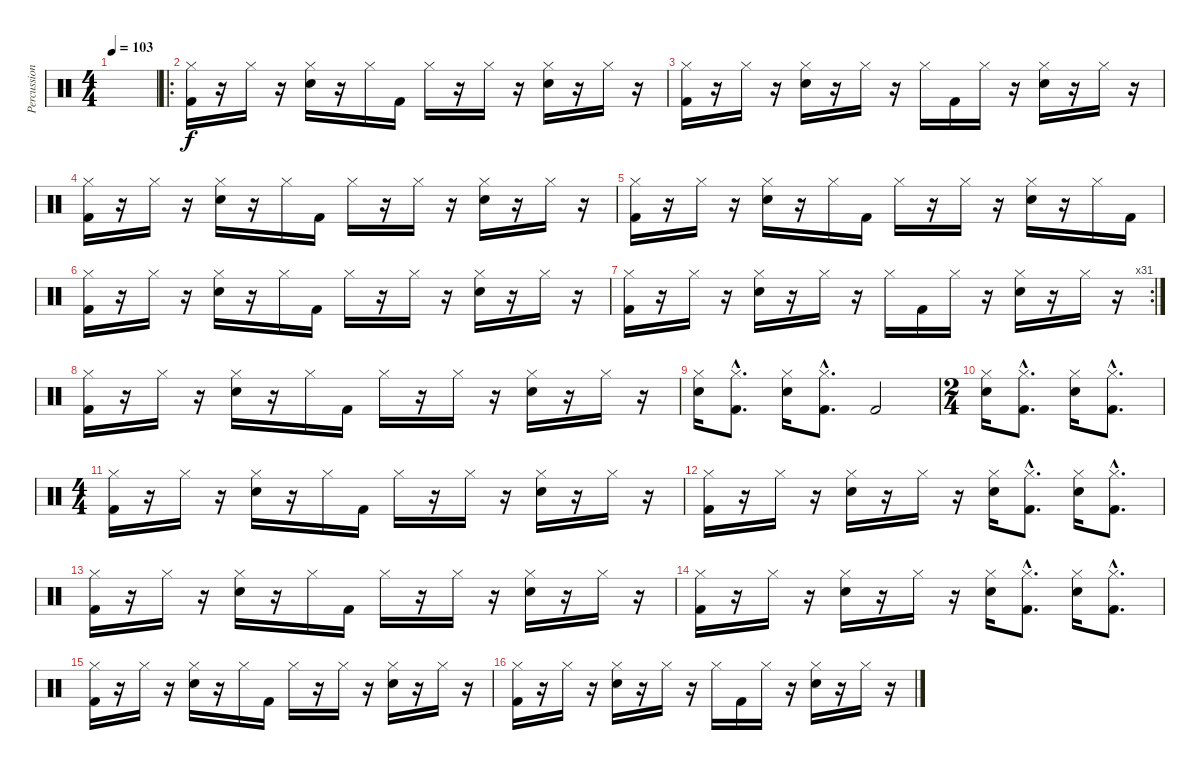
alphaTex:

\track ("Percussions" "Percussion") {instrument percussion}
\staff {score}
\articulation defaults
\ts (4 4)
\tempo 103
\clef neutral
\ks c
|
\ro
("Hi-Hat (closed)" "Kick (hit) 2").16 r.16 "Hi-Hat (closed)".16 r.16 ("Hi-Hat (closed)" "Snare (hit) 2").16 r.16 "Hi-Hat (closed)".16 "Kick (hit) 2".16 "Hi-Hat (closed)".16 r.16 "Hi-Hat (closed)".16 r.16 ("Hi-Hat (closed)" "Snare (hit) 2").16 r.16 "Hi-Hat (closed)".16 r.16 |
("Hi-Hat (closed)" "Kick (hit) 2").16 r.16 "Hi-Hat (closed)".16 r.16 ("Hi-Hat (closed)" "Snare (hit) 2").16 r.16 "Hi-Hat (closed)".16 r.16 "Hi-Hat (closed)".16 "Kick (hit) 2".16 "Hi-Hat (closed)".16 r.16 ("Hi-Hat (closed)" "Snare (hit) 2").16 r.16 "Hi-Hat (closed)".16 r.16 |
("Hi-Hat (closed)" "Kick (hit) 2").16 r.16 "Hi-Hat (closed)".16 r.16 ("Hi-Hat (closed)" "Snare (hit) 2").16 r.16 "Hi-Hat (closed)".16 "Kick (hit) 2".16 "Hi-Hat (closed)".16 r.16 "Hi-Hat (closed)".16 r.16 ("Hi-Hat (closed)" "Snare (hit) 2").16 r.16 "Hi-Hat (closed)".16 r.16 |
("Hi-Hat (closed)" "Kick (hit) 2").16 r.16 "Hi-Hat (closed)".16 r.16 ("Hi-Hat (closed)" "Snare (hit) 2").16 r.16 "Hi-Hat (closed)".16 "Kick (hit) 2".16 "Hi-Hat (closed)".16 r.16 "Hi-Hat (closed)".16 r.16 ("Hi-Hat (closed)" "Snare (hit) 2").16 r.16 "Hi-Hat (closed)".16 "Kick (hit) 2".16 |
("Hi-Hat (closed)" "Kick (hit) 2").16 r.16 "Hi-Hat (closed)".16 r.16 ("Hi-Hat (closed)" "Snare (hit) 2").16 r.16 "Hi-Hat (closed)".16 "Kick (hit) 2".16 "Hi-Hat (closed)".16 r.16 "Hi-Hat (closed)".16 r.16 ("Hi-Hat (closed)" "Snare (hit) 2").16 r.16 "Hi-Hat (closed)".16 r.16 |
\rc 31
("Hi-Hat (closed)" "Kick (hit) 2").16 r.16 "Hi-Hat (closed)".16 r.16 ("Hi-Hat (closed)" "Snare (hit) 2").16 r.16 "Hi-Hat (closed)".16 r.16 "Hi-Hat (closed)".16 "Kick (hit) 2".16 "Hi-Hat (closed)".16 r.16 ("Hi-Hat (closed)" "Snare (hit) 2").16 r.16 "Hi-Hat (closed)".16 r.16 |
("Hi-Hat (closed)" "Kick (hit) 2").16 r.16 "Hi-Hat (closed)".16 r.16 ("Hi-Hat (closed)" "Snare (hit) 2").16 r.16 "Hi-Hat (closed)".16 "Kick (hit) 2".16 "Hi-Hat (closed)".16 r.16 "Hi-Hat (closed)".16 r.16 ("Hi-Hat (closed)" "Snare (hit) 2").16 r.16 "Hi-Hat (closed)".16 r.16 |
("Hi-Hat (closed)" "Snare (hit) 2").16 ("Hi-Hat (closed)"{hac} "Kick (hit) 2"{hac}).8{d} ("Hi-Hat (closed)" "Snare (hit) 2").16 ("Hi-Hat (closed)"{hac} "Kick (hit) 2"{hac}).8{d} "Kick (hit) 2".2 |
\ts (2 4)
("Hi-Hat (closed)" "Snare (hit) 2").16 ("Hi-Hat (closed)"{hac} "Kick (hit) 2"{hac}).8{d} ("Hi-Hat (closed)" "Snare (hit) 2").16 ("Hi-Hat (closed)"{hac} "Kick (hit) 2"{hac}).8{d} |
\ts (4 4)
("Hi-Hat (closed)" "Kick (hit) 2").16 r.16 "Hi-Hat (closed)".16 r.16 ("Hi-Hat (closed)" "Snare (hit) 2").16 r.16 "Hi-Hat (closed)".16 "Kick (hit) 2".16 "Hi-Hat (closed)".16 r.16 "Hi-Hat (closed)".16 r.16 ("Hi-Hat (closed)" "Snare (hit) 2").16 r.16 "Hi-Hat (closed)".16 r.16 |
("Hi-Hat (closed)" "Kick (hit) 2").16 r.16 "Hi-Hat (closed)".16 r.16 ("Hi-Hat (closed)" "Snare (hit) 2").16 r.16 "Hi-Hat (closed)".16 r.16 ("Hi-Hat (closed)" "Snare (hit) 2").16 ("Hi-Hat (closed)"{hac} "Kick (hit) 2"{hac}).8{d} ("Hi-Hat (closed)" "Snare (hit) 2").16 ("Hi-Hat (closed)"{hac} "Kick (hit) 2"{hac}).8{d} |
("Hi-Hat (closed)" "Kick (hit) 2").16 r.16 "Hi-Hat (closed)".16 r.16 ("Hi-Hat (closed)" "Snare (hit) 2").16 r.16 "Hi-Hat (closed)".16 "Kick (hit) 2".16 "Hi-Hat (closed)".16 r.16 "Hi-Hat (closed)".16 r.16 ("Hi-Hat (closed)" "Snare (hit) 2").16 r.16 "Hi-Hat (closed)".16 r.16 |
("Hi-Hat (closed)" "Kick (hit) 2").16 r.16 "Hi-Hat (closed)".16 r.16 ("Hi-Hat (closed)" "Snare (hit) 2").16 r.16 "Hi-Hat (closed)".16 r.16 ("Hi-Hat (closed)" "Snare (hit) 2").16 ("Hi-Hat (closed)"{hac} "Kick (hit) 2"{hac}).8{d} ("Hi-Hat (closed)" "Snare (hit) 2").16 ("Hi-Hat (closed)"{hac} "Kick (hit) 2"{hac}).8{d} |
("Hi-Hat (closed)" "Kick (hit) 2").16 r.16 "Hi-Hat (closed)".16 r.16 ("Hi-Hat (closed)" "Snare (hit) 2").16 r.16 "Hi-Hat (closed)".16 "Kick (hit) 2".16 "Hi-Hat (closed)".16 r.16 "Hi-Hat (closed)".16 r.16 ("Hi-Hat (closed)" "Snare (hit) 2").16 r.16 "Hi-Hat (closed)".16 r.16 |
("Hi-Hat (closed)" "Kick (hit) 2").16 r.16 "Hi-Hat (closed)".16 r.16 ("Hi-Hat (closed)" "Snare (hit) 2").16 r.16 "Hi-Hat (closed)".16 r.16 "Hi-Hat (closed)".16 "Kick (hit) 2".16 "Hi-Hat (closed)".16 r.16 ("Hi-Hat (closed)" "Snare (hit) 2").16 r.16 "Hi-Hat (closed)".16 r.16
